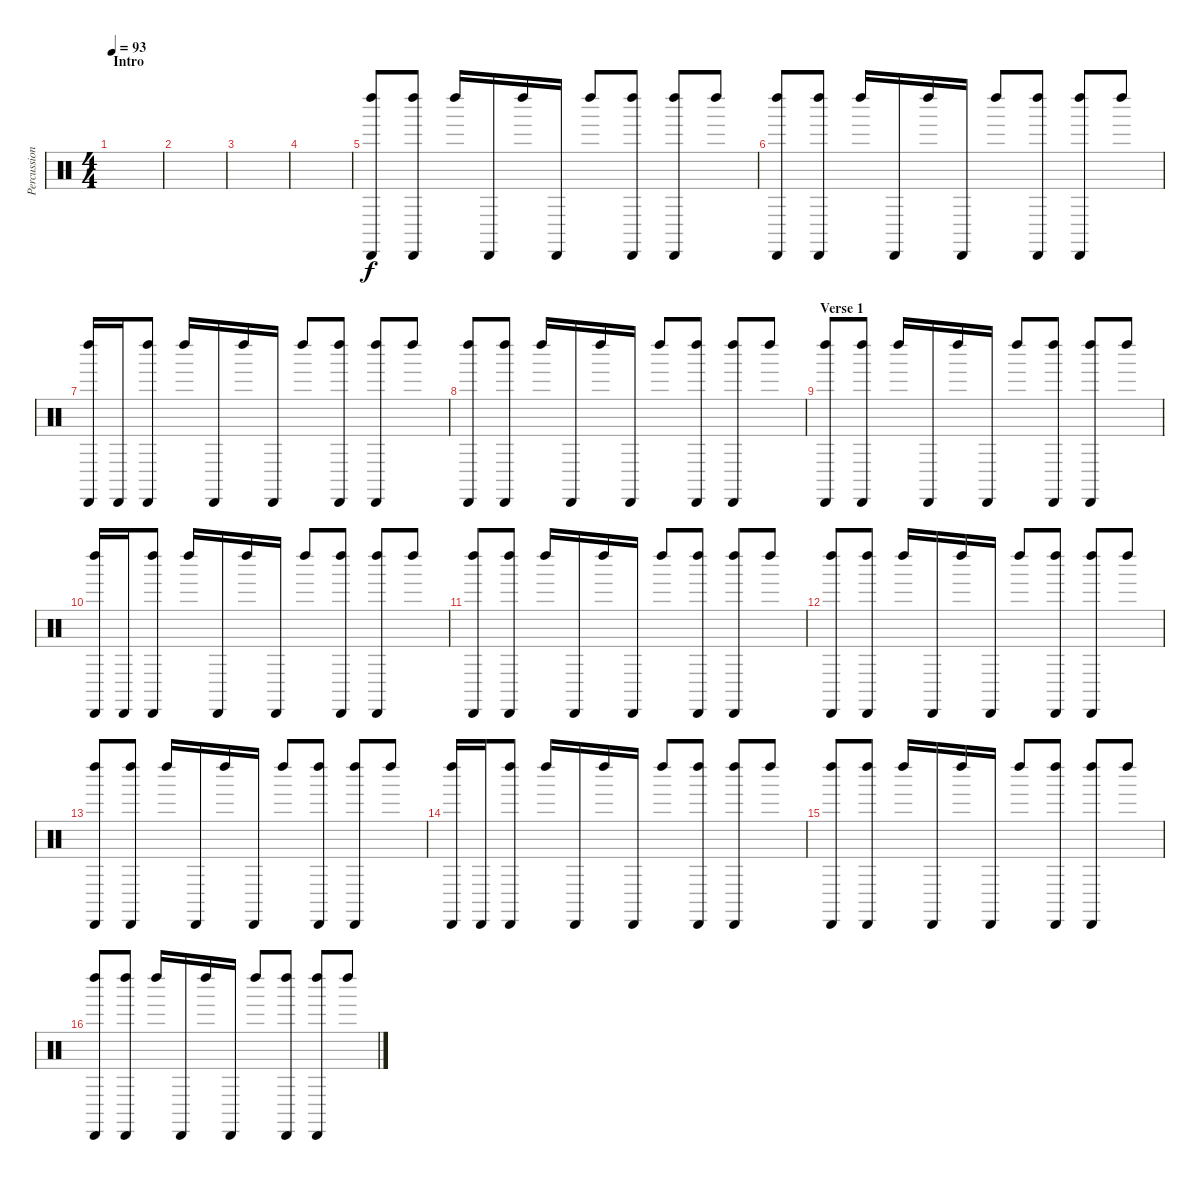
\track ("Percussion" "Percussion") {instrument percussion}
\staff {score}
\articulation defaults
\ts (4 4)
\section ("" "Intro")
\tempo 93
\clef neutral
\ks c
|
|
|
|
("Left Maraca (hit)" "Cabasa (hit)").8 ("Left Maraca (hit)" "Cabasa (hit)").8 "Left Maraca (hit)".16 "Cabasa (hit)".16 "Left Maraca (hit)".16 "Cabasa (hit)".16 "Left Maraca (hit)".8 ("Left Maraca (hit)" "Cabasa (hit)").8 ("Left Maraca (hit)" "Cabasa (hit)").8 "Left Maraca (hit)".8 |
("Left Maraca (hit)" "Cabasa (hit)").8 ("Left Maraca (hit)" "Cabasa (hit)").8 "Left Maraca (hit)".16 "Cabasa (hit)".16 "Left Maraca (hit)".16 "Cabasa (hit)".16 "Left Maraca (hit)".8 ("Left Maraca (hit)" "Cabasa (hit)").8 ("Left Maraca (hit)" "Cabasa (hit)").8 "Left Maraca (hit)".8 |
("Left Maraca (hit)" "Cabasa (hit)").16 "Cabasa (hit)".16 ("Left Maraca (hit)" "Cabasa (hit)").8 "Left Maraca (hit)".16 "Cabasa (hit)".16 "Left Maraca (hit)".16 "Cabasa (hit)".16 "Left Maraca (hit)".8 ("Left Maraca (hit)" "Cabasa (hit)").8 ("Left Maraca (hit)" "Cabasa (hit)").8 "Left Maraca (hit)".8 |
("Left Maraca (hit)" "Cabasa (hit)").8 ("Left Maraca (hit)" "Cabasa (hit)").8 "Left Maraca (hit)".16 "Cabasa (hit)".16 "Left Maraca (hit)".16 "Cabasa (hit)".16 "Left Maraca (hit)".8 ("Left Maraca (hit)" "Cabasa (hit)").8 ("Left Maraca (hit)" "Cabasa (hit)").8 "Left Maraca (hit)".8 |
\section ("" "Verse 1")
("Left Maraca (hit)" "Cabasa (hit)").8 ("Left Maraca (hit)" "Cabasa (hit)").8 "Left Maraca (hit)".16 "Cabasa (hit)".16 "Left Maraca (hit)".16 "Cabasa (hit)".16 "Left Maraca (hit)".8 ("Left Maraca (hit)" "Cabasa (hit)").8 ("Left Maraca (hit)" "Cabasa (hit)").8 "Left Maraca (hit)".8 |
("Left Maraca (hit)" "Cabasa (hit)").16 "Cabasa (hit)".16 ("Left Maraca (hit)" "Cabasa (hit)").8 "Left Maraca (hit)".16 "Cabasa (hit)".16 "Left Maraca (hit)".16 "Cabasa (hit)".16 "Left Maraca (hit)".8 ("Left Maraca (hit)" "Cabasa (hit)").8 ("Left Maraca (hit)" "Cabasa (hit)").8 "Left Maraca (hit)".8 |
("Left Maraca (hit)" "Cabasa (hit)").8 ("Left Maraca (hit)" "Cabasa (hit)").8 "Left Maraca (hit)".16 "Cabasa (hit)".16 "Left Maraca (hit)".16 "Cabasa (hit)".16 "Left Maraca (hit)".8 ("Left Maraca (hit)" "Cabasa (hit)").8 ("Left Maraca (hit)" "Cabasa (hit)").8 "Left Maraca (hit)".8 |
("Left Maraca (hit)" "Cabasa (hit)").8 ("Left Maraca (hit)" "Cabasa (hit)").8 "Left Maraca (hit)".16 "Cabasa (hit)".16 "Left Maraca (hit)".16 "Cabasa (hit)".16 "Left Maraca (hit)".8 ("Left Maraca (hit)" "Cabasa (hit)").8 ("Left Maraca (hit)" "Cabasa (hit)").8 "Left Maraca (hit)".8 |
("Left Maraca (hit)" "Cabasa (hit)").8 ("Left Maraca (hit)" "Cabasa (hit)").8 "Left Maraca (hit)".16 "Cabasa (hit)".16 "Left Maraca (hit)".16 "Cabasa (hit)".16 "Left Maraca (hit)".8 ("Left Maraca (hit)" "Cabasa (hit)").8 ("Left Maraca (hit)" "Cabasa (hit)").8 "Left Maraca (hit)".8 |
("Left Maraca (hit)" "Cabasa (hit)").16 "Cabasa (hit)".16 ("Left Maraca (hit)" "Cabasa (hit)").8 "Left Maraca (hit)".16 "Cabasa (hit)".16 "Left Maraca (hit)".16 "Cabasa (hit)".16 "Left Maraca (hit)".8 ("Left Maraca (hit)" "Cabasa (hit)").8 ("Left Maraca (hit)" "Cabasa (hit)").8 "Left Maraca (hit)".8 |
("Left Maraca (hit)" "Cabasa (hit)").8 ("Left Maraca (hit)" "Cabasa (hit)").8 "Left Maraca (hit)".16 "Cabasa (hit)".16 "Left Maraca (hit)".16 "Cabasa (hit)".16 "Left Maraca (hit)".8 ("Left Maraca (hit)" "Cabasa (hit)").8 ("Left Maraca (hit)" "Cabasa (hit)").8 "Left Maraca (hit)".8 |
("Left Maraca (hit)" "Cabasa (hit)").8 ("Left Maraca (hit)" "Cabasa (hit)").8 "Left Maraca (hit)".16 "Cabasa (hit)".16 "Left Maraca (hit)".16 "Cabasa (hit)".16 "Left Maraca (hit)".8 ("Left Maraca (hit)" "Cabasa (hit)").8 ("Left Maraca (hit)" "Cabasa (hit)").8 "Left Maraca (hit)".8
